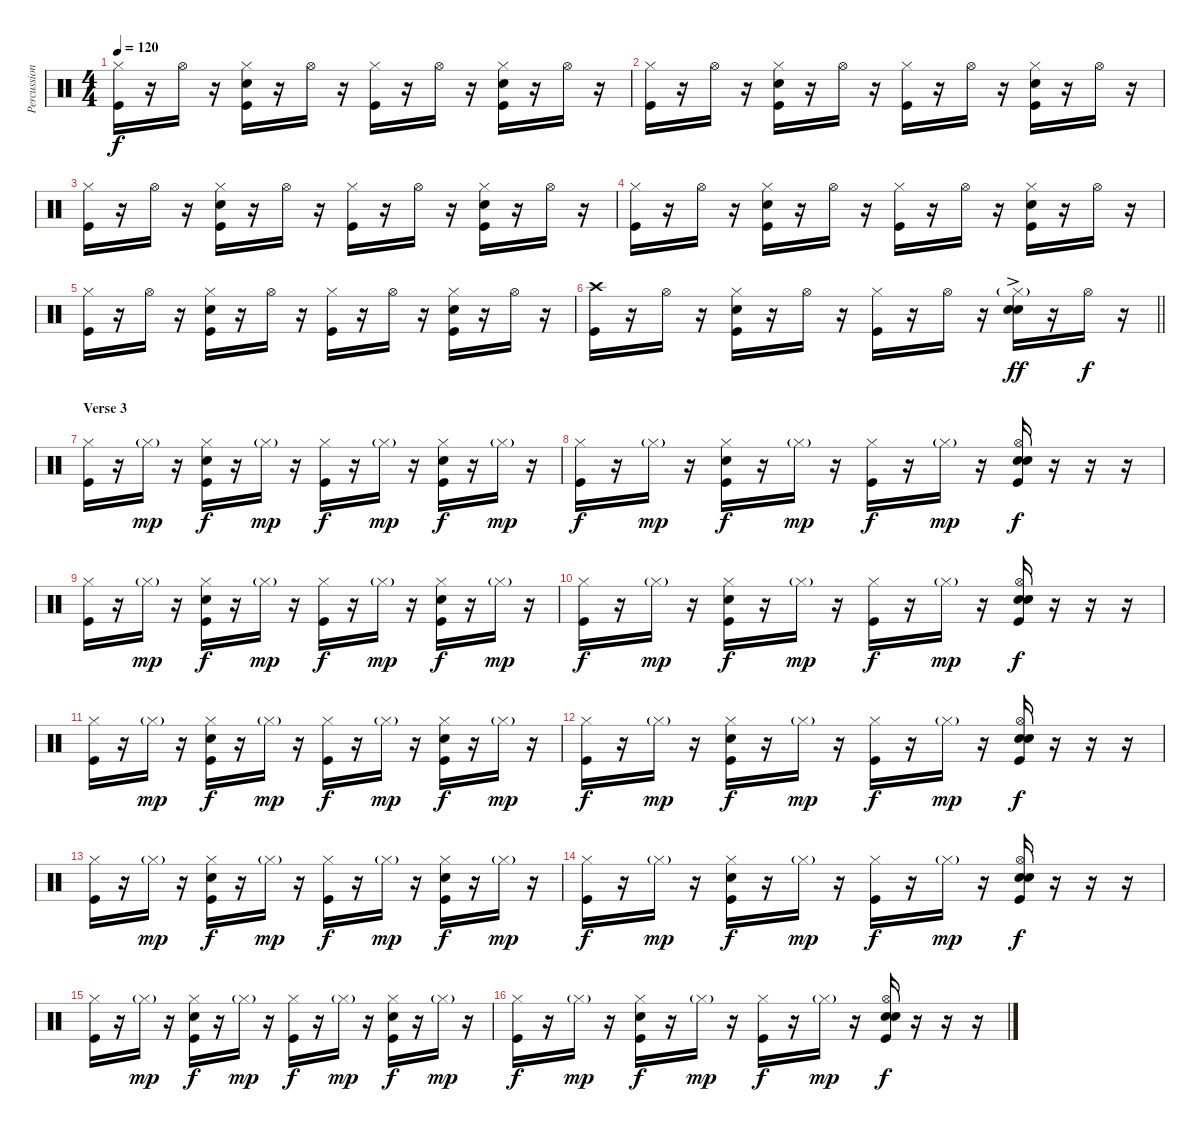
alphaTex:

\track ("Percussion" "Percussion") {instrument percussion}
\staff {score}
\articulation defaults
\ts (4 4)
\tempo 120
\clef neutral
\ks c
("Hi-Hat (closed)" "Kick (hit)").16{dy f} r.16 "Hi-Hat (open)".16 r.16 ("Hi-Hat (closed)" "Snare (hit) 2" "Kick (hit)").16 r.16 "Hi-Hat (open)".16 r.16 ("Hi-Hat (closed)" "Kick (hit)").16 r.16 "Hi-Hat (open)".16 r.16 ("Hi-Hat (closed)" "Snare (hit) 2" "Kick (hit)").16 r.16 "Hi-Hat (open)".16 r.16 |
("Hi-Hat (closed)" "Kick (hit)").16 r.16 "Hi-Hat (open)".16 r.16 ("Hi-Hat (closed)" "Snare (hit) 2" "Kick (hit)").16 r.16 "Hi-Hat (open)".16 r.16 ("Hi-Hat (closed)" "Kick (hit)").16 r.16 "Hi-Hat (open)".16 r.16 ("Hi-Hat (closed)" "Snare (hit) 2" "Kick (hit)").16 r.16 "Hi-Hat (open)".16 r.16 |
("Hi-Hat (closed)" "Kick (hit)").16 r.16 "Hi-Hat (open)".16 r.16 ("Hi-Hat (closed)" "Snare (hit) 2" "Kick (hit)").16 r.16 "Hi-Hat (open)".16 r.16 ("Hi-Hat (closed)" "Kick (hit)").16 r.16 "Hi-Hat (open)".16 r.16 ("Hi-Hat (closed)" "Snare (hit) 2" "Kick (hit)").16 r.16 "Hi-Hat (open)".16 r.16 |
("Hi-Hat (closed)" "Kick (hit)").16 r.16 "Hi-Hat (open)".16 r.16 ("Hi-Hat (closed)" "Snare (hit) 2" "Kick (hit)").16 r.16 "Hi-Hat (open)".16 r.16 ("Hi-Hat (closed)" "Kick (hit)").16 r.16 "Hi-Hat (open)".16 r.16 ("Hi-Hat (closed)" "Snare (hit) 2" "Kick (hit)").16 r.16 "Hi-Hat (open)".16 r.16 |
("Hi-Hat (closed)" "Kick (hit)").16 r.16 "Hi-Hat (open)".16 r.16 ("Hi-Hat (closed)" "Snare (hit) 2" "Kick (hit)").16 r.16 "Hi-Hat (open)".16 r.16 ("Hi-Hat (closed)" "Kick (hit)").16 r.16 "Hi-Hat (open)".16 r.16 ("Hi-Hat (closed)" "Snare (hit) 2" "Kick (hit)").16 r.16 "Hi-Hat (open)".16 r.16 |
\barLineRight lightlight
("Crash high (hit)" "Kick (hit)").16 r.16 "Hi-Hat (open)".16 r.16 ("Hi-Hat (closed)" "Snare (hit) 2" "Kick (hit)").16 r.16 "Hi-Hat (open)".16 r.16 ("Hi-Hat (closed)" "Kick (hit)").16 r.16 "Hi-Hat (open)".16 r.16 ("Hi-Hat (closed)"{g} "Hand Clap (hit)" "Snare (hit) 2"{ac}).16{dy ff} r.16 "Hi-Hat (open)".16{dy f} r.16 |
\section ("" "Verse 3")
("Hi-Hat (closed)" "Kick (hit)").16 r.16 "Hi-Hat (closed)"{g}.16{dy mp} r.16 ("Hi-Hat (closed)" "Snare (hit) 2" "Kick (hit)").16{dy f} r.16 "Hi-Hat (closed)"{g}.16{dy mp} r.16 ("Hi-Hat (closed)" "Kick (hit)").16{dy f} r.16 "Hi-Hat (closed)"{g}.16{dy mp} r.16 ("Hi-Hat (closed)" "Snare (hit) 2" "Kick (hit)").16{dy f} r.16 "Hi-Hat (closed)"{g}.16{dy mp} r.16 |
("Hi-Hat (closed)" "Kick (hit)").16{dy f} r.16 "Hi-Hat (closed)"{g}.16{dy mp} r.16 ("Hi-Hat (closed)" "Snare (hit) 2" "Kick (hit)").16{dy f} r.16 "Hi-Hat (closed)"{g}.16{dy mp} r.16 ("Hi-Hat (closed)" "Kick (hit)").16{dy f} r.16 "Hi-Hat (closed)"{g}.16{dy mp} r.16 ("Hi-Hat (open)" "Hand Clap (hit)" "Snare (hit) 2" "Kick (hit)").16{dy f} r.16 r.16 r.16 |
("Hi-Hat (closed)" "Kick (hit)").16 r.16 "Hi-Hat (closed)"{g}.16{dy mp} r.16 ("Hi-Hat (closed)" "Snare (hit) 2" "Kick (hit)").16{dy f} r.16 "Hi-Hat (closed)"{g}.16{dy mp} r.16 ("Hi-Hat (closed)" "Kick (hit)").16{dy f} r.16 "Hi-Hat (closed)"{g}.16{dy mp} r.16 ("Hi-Hat (closed)" "Snare (hit) 2" "Kick (hit)").16{dy f} r.16 "Hi-Hat (closed)"{g}.16{dy mp} r.16 |
("Hi-Hat (closed)" "Kick (hit)").16{dy f} r.16 "Hi-Hat (closed)"{g}.16{dy mp} r.16 ("Hi-Hat (closed)" "Snare (hit) 2" "Kick (hit)").16{dy f} r.16 "Hi-Hat (closed)"{g}.16{dy mp} r.16 ("Hi-Hat (closed)" "Kick (hit)").16{dy f} r.16 "Hi-Hat (closed)"{g}.16{dy mp} r.16 ("Hi-Hat (open)" "Hand Clap (hit)" "Snare (hit) 2" "Kick (hit)").16{dy f} r.16 r.16 r.16 |
("Hi-Hat (closed)" "Kick (hit)").16 r.16 "Hi-Hat (closed)"{g}.16{dy mp} r.16 ("Hi-Hat (closed)" "Snare (hit) 2" "Kick (hit)").16{dy f} r.16 "Hi-Hat (closed)"{g}.16{dy mp} r.16 ("Hi-Hat (closed)" "Kick (hit)").16{dy f} r.16 "Hi-Hat (closed)"{g}.16{dy mp} r.16 ("Hi-Hat (closed)" "Snare (hit) 2" "Kick (hit)").16{dy f} r.16 "Hi-Hat (closed)"{g}.16{dy mp} r.16 |
("Hi-Hat (closed)" "Kick (hit)").16{dy f} r.16 "Hi-Hat (closed)"{g}.16{dy mp} r.16 ("Hi-Hat (closed)" "Snare (hit) 2" "Kick (hit)").16{dy f} r.16 "Hi-Hat (closed)"{g}.16{dy mp} r.16 ("Hi-Hat (closed)" "Kick (hit)").16{dy f} r.16 "Hi-Hat (closed)"{g}.16{dy mp} r.16 ("Hi-Hat (open)" "Hand Clap (hit)" "Snare (hit) 2" "Kick (hit)").16{dy f} r.16 r.16 r.16 |
("Hi-Hat (closed)" "Kick (hit)").16 r.16 "Hi-Hat (closed)"{g}.16{dy mp} r.16 ("Hi-Hat (closed)" "Snare (hit) 2" "Kick (hit)").16{dy f} r.16 "Hi-Hat (closed)"{g}.16{dy mp} r.16 ("Hi-Hat (closed)" "Kick (hit)").16{dy f} r.16 "Hi-Hat (closed)"{g}.16{dy mp} r.16 ("Hi-Hat (closed)" "Snare (hit) 2" "Kick (hit)").16{dy f} r.16 "Hi-Hat (closed)"{g}.16{dy mp} r.16 |
("Hi-Hat (closed)" "Kick (hit)").16{dy f} r.16 "Hi-Hat (closed)"{g}.16{dy mp} r.16 ("Hi-Hat (closed)" "Snare (hit) 2" "Kick (hit)").16{dy f} r.16 "Hi-Hat (closed)"{g}.16{dy mp} r.16 ("Hi-Hat (closed)" "Kick (hit)").16{dy f} r.16 "Hi-Hat (closed)"{g}.16{dy mp} r.16 ("Hi-Hat (open)" "Hand Clap (hit)" "Snare (hit) 2" "Kick (hit)").16{dy f} r.16 r.16 r.16 |
("Hi-Hat (closed)" "Kick (hit)").16 r.16 "Hi-Hat (closed)"{g}.16{dy mp} r.16 ("Hi-Hat (closed)" "Snare (hit) 2" "Kick (hit)").16{dy f} r.16 "Hi-Hat (closed)"{g}.16{dy mp} r.16 ("Hi-Hat (closed)" "Kick (hit)").16{dy f} r.16 "Hi-Hat (closed)"{g}.16{dy mp} r.16 ("Hi-Hat (closed)" "Snare (hit) 2" "Kick (hit)").16{dy f} r.16 "Hi-Hat (closed)"{g}.16{dy mp} r.16 |
("Hi-Hat (closed)" "Kick (hit)").16{dy f} r.16 "Hi-Hat (closed)"{g}.16{dy mp} r.16 ("Hi-Hat (closed)" "Snare (hit) 2" "Kick (hit)").16{dy f} r.16 "Hi-Hat (closed)"{g}.16{dy mp} r.16 ("Hi-Hat (closed)" "Kick (hit)").16{dy f} r.16 "Hi-Hat (closed)"{g}.16{dy mp} r.16 ("Hi-Hat (open)" "Hand Clap (hit)" "Snare (hit) 2" "Kick (hit)").16{dy f} r.16 r.16 r.16
